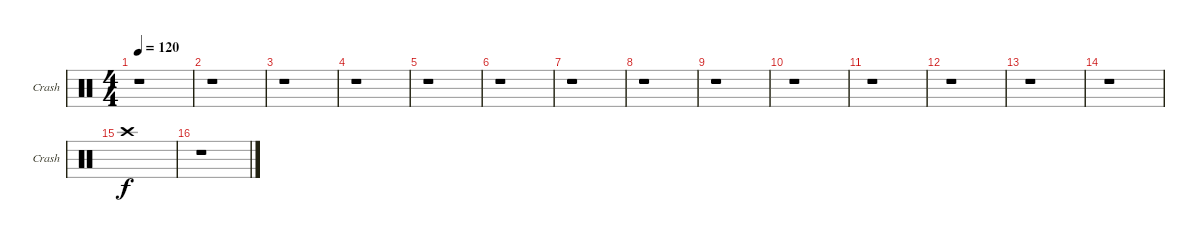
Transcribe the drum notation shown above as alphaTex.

\bracketExtendMode groupsimilarinstruments
\singleTrackTrackNamePolicy allsystems
\multiTrackTrackNamePolicy allsystems
\firstSystemTrackNameOrientation horizontal
\otherSystemsTrackNameOrientation horizontal
\track ("Cymbal" "Crash") {instrument percussion}
\staff {score}
\articulation defaults
\ts (4 4)
\tempo 120
\clef neutral
\scale
0.472222
\ks c
r.1{dy f} |
\scale
0.263889 r.1 |
\scale
0.263889 r.1 |
\scale
0.333333 r.1 |
\scale
0.333333 r.1 |
\scale
0.333333 r.1 |
\scale
0.333333 r.1 |
\scale
0.333333 r.1 |
\scale
0.333333 r.1 |
\scale
0.333333 r.1 |
\scale
0.333333 r.1 |
\scale
0.333333 r.1 |
\scale
0.333333 r.1 |
\scale
0.333333 r.1 |
\scale
0.333333 "Crash high (hit)".1 |
\scale
0.333333 r.1
